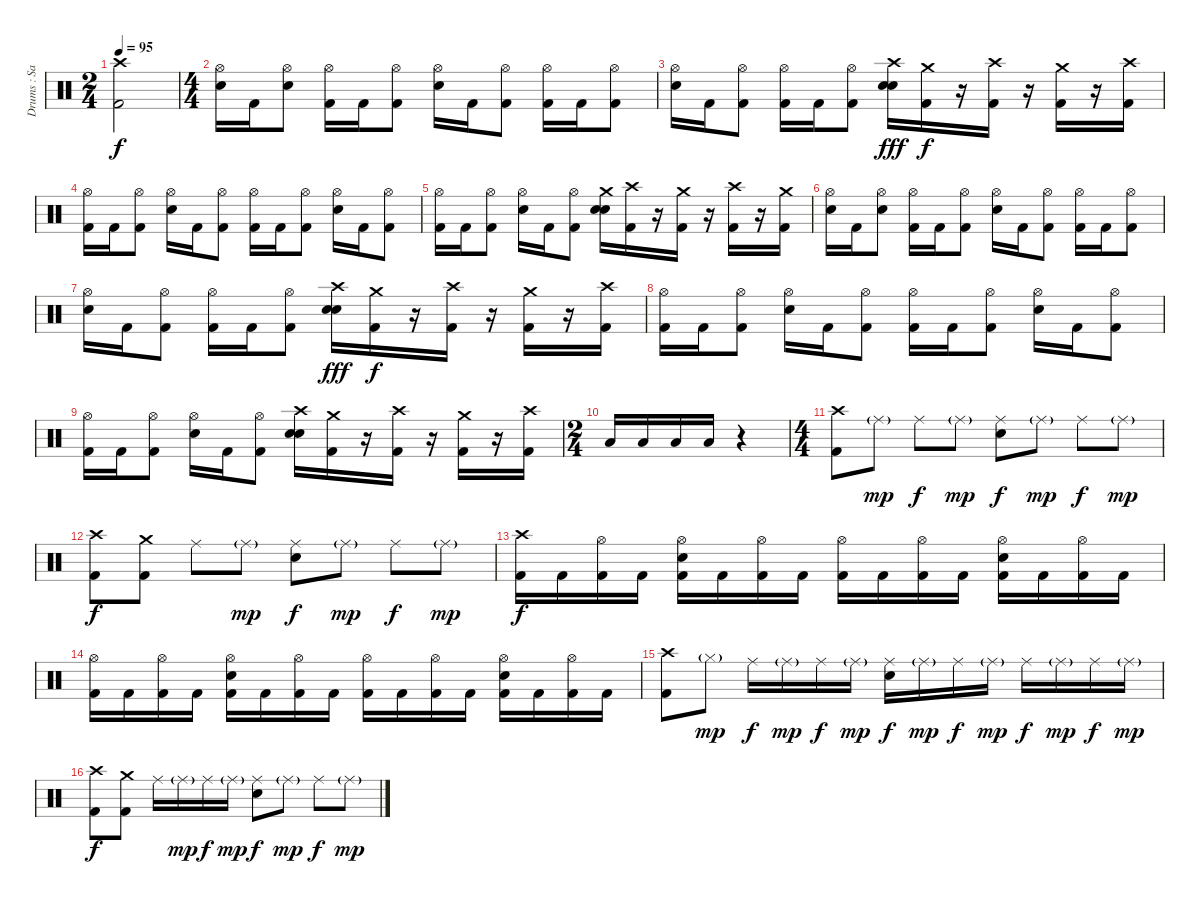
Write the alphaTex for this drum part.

\track ("Drums : Sammy Siegler" "Drums : Sa") {instrument percussion}
\staff {score}
\articulation defaults
\ts (2 4)
\tempo 95
\clef neutral
\ks c
("Crash high (hit)" "Kick (hit) 2").2{dy f} |
\ts (4 4)
("Hi-Hat (open)" "Electric Snare (hit)").16 "Kick (hit) 2".16 ("Hi-Hat (open)" "Electric Snare (hit)").8 ("Hi-Hat (open)" "Kick (hit) 2").16 "Kick (hit) 2".16 ("Hi-Hat (open)" "Kick (hit) 2").8 ("Hi-Hat (open)" "Electric Snare (hit)").16 "Kick (hit) 2".16 ("Hi-Hat (open)" "Kick (hit) 2").8 ("Hi-Hat (open)" "Kick (hit) 2").16 "Kick (hit) 2".16 ("Hi-Hat (open)" "Kick (hit) 2").8 |
("Hi-Hat (open)" "Electric Snare (hit)").16 "Kick (hit) 2".16 ("Hi-Hat (open)" "Kick (hit) 2").8 ("Hi-Hat (open)" "Kick (hit) 2").16 "Kick (hit) 2".16 ("Hi-Hat (open)" "Kick (hit) 2").8 ("Crash high (hit)" "Electric Snare (hit)" "Electric Snare (hit)").16{dy fff} ("Crash medium (hit)" "Kick (hit) 2").16{dy f} r.16 ("Crash high (hit)" "Kick (hit) 2").16 r.16 ("Crash medium (hit)" "Kick (hit) 2").16 r.16 ("Crash high (hit)" "Kick (hit) 2").16 |
("Hi-Hat (open)" "Kick (hit) 2").16 "Kick (hit) 2".16 ("Hi-Hat (open)" "Kick (hit) 2").8 ("Hi-Hat (open)" "Electric Snare (hit)").16 "Kick (hit) 2".16 ("Hi-Hat (open)" "Kick (hit) 2").8 ("Hi-Hat (open)" "Kick (hit) 2").16 "Kick (hit) 2".16 ("Hi-Hat (open)" "Kick (hit) 2").8 ("Hi-Hat (open)" "Electric Snare (hit)").16 "Kick (hit) 2".16 ("Hi-Hat (open)" "Kick (hit) 2").8 |
("Hi-Hat (open)" "Kick (hit) 2").16 "Kick (hit) 2".16 ("Hi-Hat (open)" "Kick (hit) 2").8 ("Hi-Hat (open)" "Electric Snare (hit)").16 "Kick (hit) 2".16 ("Hi-Hat (open)" "Kick (hit) 2").8 ("Crash medium (hit)" "Electric Snare (hit)" "Electric Snare (hit)").16 ("Crash high (hit)" "Kick (hit) 2").16 r.16 ("Crash medium (hit)" "Kick (hit) 2").16 r.16 ("Crash high (hit)" "Kick (hit) 2").16 r.16 ("Crash medium (hit)" "Kick (hit) 2").16 |
("Hi-Hat (open)" "Electric Snare (hit)").16 "Kick (hit) 2".16 ("Hi-Hat (open)" "Electric Snare (hit)").8 ("Hi-Hat (open)" "Kick (hit) 2").16 "Kick (hit) 2".16 ("Hi-Hat (open)" "Kick (hit) 2").8 ("Hi-Hat (open)" "Electric Snare (hit)").16 "Kick (hit) 2".16 ("Hi-Hat (open)" "Kick (hit) 2").8 ("Hi-Hat (open)" "Kick (hit) 2").16 "Kick (hit) 2".16 ("Hi-Hat (open)" "Kick (hit) 2").8 |
("Hi-Hat (open)" "Electric Snare (hit)").16 "Kick (hit) 2".16 ("Hi-Hat (open)" "Kick (hit) 2").8 ("Hi-Hat (open)" "Kick (hit) 2").16 "Kick (hit) 2".16 ("Hi-Hat (open)" "Kick (hit) 2").8 ("Crash high (hit)" "Electric Snare (hit)" "Electric Snare (hit)").16{dy fff} ("Crash medium (hit)" "Kick (hit) 2").16{dy f} r.16 ("Crash high (hit)" "Kick (hit) 2").16 r.16 ("Crash medium (hit)" "Kick (hit) 2").16 r.16 ("Crash high (hit)" "Kick (hit) 2").16 |
("Hi-Hat (open)" "Kick (hit) 2").16 "Kick (hit) 2".16 ("Hi-Hat (open)" "Kick (hit) 2").8 ("Hi-Hat (open)" "Electric Snare (hit)").16 "Kick (hit) 2".16 ("Hi-Hat (open)" "Kick (hit) 2").8 ("Hi-Hat (open)" "Kick (hit) 2").16 "Kick (hit) 2".16 ("Hi-Hat (open)" "Kick (hit) 2").8 ("Hi-Hat (open)" "Electric Snare (hit)").16 "Kick (hit) 2".16 ("Hi-Hat (open)" "Kick (hit) 2").8 |
("Hi-Hat (open)" "Kick (hit) 2").16 "Kick (hit) 2".16 ("Hi-Hat (open)" "Kick (hit) 2").8 ("Hi-Hat (open)" "Electric Snare (hit)").16 "Kick (hit) 2".16 ("Hi-Hat (open)" "Kick (hit) 2").8 ("Crash high (hit)" "Electric Snare (hit)" "Electric Snare (hit)").16 ("Crash medium (hit)" "Kick (hit) 2").16 r.16 ("Crash high (hit)" "Kick (hit) 2").16 r.16 ("Crash medium (hit)" "Kick (hit) 2").16 r.16 ("Crash high (hit)" "Kick (hit) 2").16 |
\ts (2 4)
"Low Floor Tom (hit)".16 "Low Tom (hit)".16 "Low Floor Tom (hit)".16 "Low Floor Tom (hit)".16 r.4 |
\ts (4 4)
("Crash high (hit)" "Kick (hit) 2").8 "Ride (middle)"{g}.8{dy mp} "Ride (middle)".8{dy f} "Ride (middle)"{g}.8{dy mp} ("Ride (middle)" "Electric Snare (hit)").8{dy f} "Ride (middle)"{g}.8{dy mp} "Ride (middle)".8{dy f} "Ride (middle)"{g}.8{dy mp} |
("Crash high (hit)" "Kick (hit) 2").8{dy f} ("Crash medium (hit)" "Kick (hit) 2").8 "Ride (middle)".8 "Ride (middle)"{g}.8{dy mp} ("Ride (middle)" "Electric Snare (hit)").8{dy f} "Ride (middle)"{g}.8{dy mp} "Ride (middle)".8{dy f} "Ride (middle)"{g}.8{dy mp} |
("Crash high (hit)" "Kick (hit) 2").16{dy f} "Kick (hit) 2".16 ("Hi-Hat (open)" "Kick (hit) 2").16 "Kick (hit) 2".16 ("Hi-Hat (open)" "Electric Snare (hit)" "Kick (hit) 2").16 "Kick (hit) 2".16 ("Hi-Hat (open)" "Kick (hit) 2").16 "Kick (hit) 2".16 ("Hi-Hat (open)" "Kick (hit) 2").16 "Kick (hit) 2".16 ("Hi-Hat (open)" "Kick (hit) 2").16 "Kick (hit) 2".16 ("Hi-Hat (open)" "Electric Snare (hit)" "Kick (hit) 2").16 "Kick (hit) 2".16 ("Hi-Hat (open)" "Kick (hit) 2").16 "Kick (hit) 2".16 |
("Hi-Hat (open)" "Kick (hit) 2").16 "Kick (hit) 2".16 ("Hi-Hat (open)" "Kick (hit) 2").16 "Kick (hit) 2".16 ("Hi-Hat (open)" "Electric Snare (hit)" "Kick (hit) 2").16 "Kick (hit) 2".16 ("Hi-Hat (open)" "Kick (hit) 2").16 "Kick (hit) 2".16 ("Hi-Hat (open)" "Kick (hit) 2").16 "Kick (hit) 2".16 ("Hi-Hat (open)" "Kick (hit) 2").16 "Kick (hit) 2".16 ("Hi-Hat (open)" "Electric Snare (hit)" "Kick (hit) 2").16 "Kick (hit) 2".16 ("Hi-Hat (open)" "Kick (hit) 2").16 "Kick (hit) 2".16 |
("Crash high (hit)" "Kick (hit) 2").8 "Hi-Hat (closed)"{g}.8{dy mp} "Ride (middle)".16{dy f} "Ride (middle)"{g}.16{dy mp} "Ride (middle)".16{dy f} "Ride (middle)"{g}.16{dy mp} ("Ride (middle)" "Electric Snare (hit)").16{dy f} "Ride (middle)"{g}.16{dy mp} "Ride (middle)".16{dy f} "Ride (middle)"{g}.16{dy mp} "Ride (middle)".16{dy f} "Ride (middle)"{g}.16{dy mp} "Ride (middle)".16{dy f} "Ride (middle)"{g}.16{dy mp} |
("Crash high (hit)" "Kick (hit) 2").8{dy f} ("Crash medium (hit)" "Kick (hit) 2").8 "Ride (middle)".16 "Ride (middle)"{g}.16{dy mp} "Ride (middle)".16{dy f} "Ride (middle)"{g}.16{dy mp} ("Ride (middle)" "Electric Snare (hit)").8{dy f} "Ride (middle)"{g}.8{dy mp} "Ride (middle)".8{dy f} "Ride (middle)"{g}.8{dy mp}
